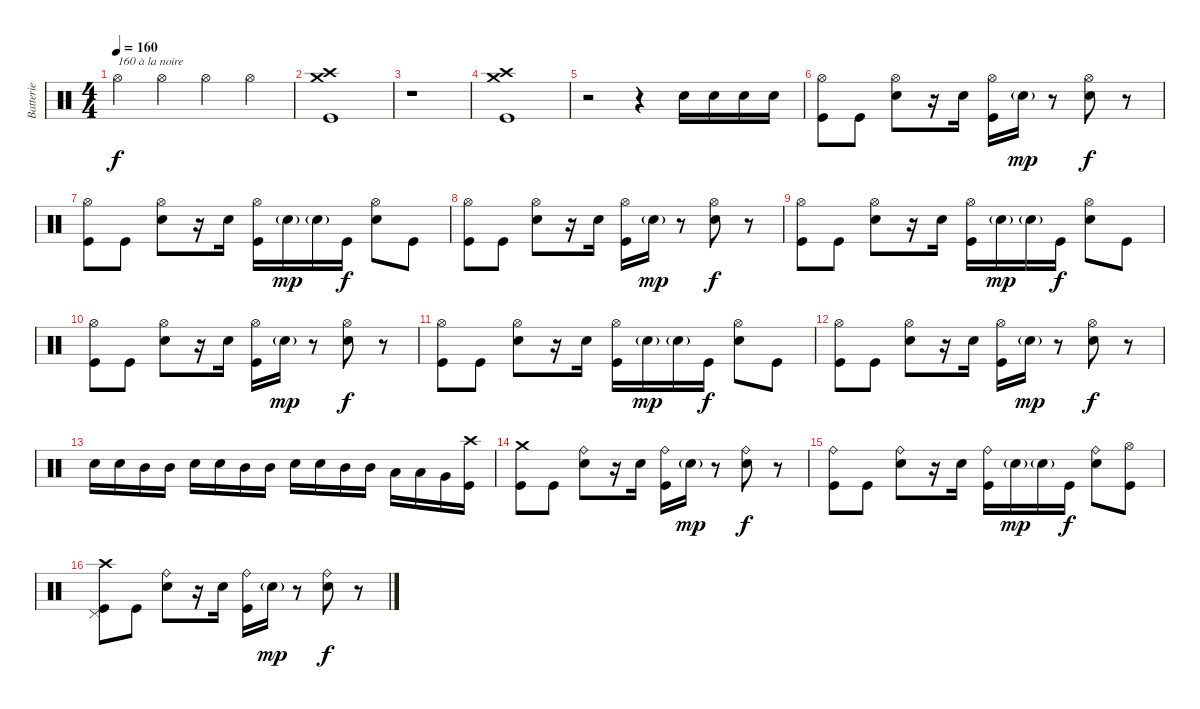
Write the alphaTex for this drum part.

\track ("Batterie" "Batterie") {instrument percussion}
\staff {score}
\articulation defaults
\ts (4 4)
\tempo 120
\tempo 160
\clef neutral
\ks c "Hi-Hat (open)".4{txt "160 à la noire" dy f} "Hi-Hat (open)".4 "Hi-Hat (open)".4 "Hi-Hat (open)".4
|
("Crash high (hit)" "Crash medium (hit)" "Kick (hit)").1 |
r.1 |
("Crash high (hit)" "Crash medium (hit)" "Kick (hit)").1 |
r.2 r.4 "Electric Snare (hit)".16 "Electric Snare (hit)".16 "Electric Snare (hit)".16 "Electric Snare (hit)".16 |
("Hi-Hat (open)" "Kick (hit)").8 "Kick (hit)".8 ("Hi-Hat (open)" "Electric Snare (hit)").8 r.16 "Electric Snare (hit)".16 ("Hi-Hat (open)" "Kick (hit)").16 "Electric Snare (hit)"{g}.16{dy mp} r.8 ("Hi-Hat (open)" "Electric Snare (hit)").8{dy f} r.8 |
("Hi-Hat (open)" "Kick (hit)").8 "Kick (hit)".8 ("Hi-Hat (open)" "Electric Snare (hit)").8 r.16 "Electric Snare (hit)".16 ("Hi-Hat (open)" "Kick (hit)").16 "Electric Snare (hit)"{g}.16{dy mp} "Electric Snare (hit)"{g}.16 "Kick (hit)".16{dy f} ("Hi-Hat (open)" "Electric Snare (hit)").8 "Kick (hit)".8 |
("Hi-Hat (open)" "Kick (hit)").8 "Kick (hit)".8 ("Hi-Hat (open)" "Electric Snare (hit)").8 r.16 "Electric Snare (hit)".16 ("Hi-Hat (open)" "Kick (hit)").16 "Electric Snare (hit)"{g}.16{dy mp} r.8 ("Hi-Hat (open)" "Electric Snare (hit)").8{dy f} r.8 |
("Hi-Hat (open)" "Kick (hit)").8 "Kick (hit)".8 ("Hi-Hat (open)" "Electric Snare (hit)").8 r.16 "Electric Snare (hit)".16 ("Hi-Hat (open)" "Kick (hit)").16 "Electric Snare (hit)"{g}.16{dy mp} "Electric Snare (hit)"{g}.16 "Kick (hit)".16{dy f} ("Hi-Hat (open)" "Electric Snare (hit)").8 "Kick (hit)".8 |
("Hi-Hat (open)" "Kick (hit)").8 "Kick (hit)".8 ("Hi-Hat (open)" "Electric Snare (hit)").8 r.16 "Electric Snare (hit)".16 ("Hi-Hat (open)" "Kick (hit)").16 "Electric Snare (hit)"{g}.16{dy mp} r.8 ("Hi-Hat (open)" "Electric Snare (hit)").8{dy f} r.8 |
("Hi-Hat (open)" "Kick (hit)").8 "Kick (hit)".8 ("Hi-Hat (open)" "Electric Snare (hit)").8 r.16 "Electric Snare (hit)".16 ("Hi-Hat (open)" "Kick (hit)").16 "Electric Snare (hit)"{g}.16{dy mp} "Electric Snare (hit)"{g}.16 "Kick (hit)".16{dy f} ("Hi-Hat (open)" "Electric Snare (hit)").8 "Kick (hit)".8 |
("Hi-Hat (open)" "Kick (hit)").8 "Kick (hit)".8 ("Hi-Hat (open)" "Electric Snare (hit)").8 r.16 "Electric Snare (hit)".16 ("Hi-Hat (open)" "Kick (hit)").16 "Electric Snare (hit)"{g}.16{dy mp} r.8 ("Hi-Hat (open)" "Electric Snare (hit)").8{dy f} r.8 |
"Electric Snare (hit)".16 "Electric Snare (hit)".16 "Mid Tom (hit)".16 "Mid Tom (hit)".16 "Electric Snare (hit)".16 "Electric Snare (hit)".16 "Mid Tom (hit)".16 "Mid Tom (hit)".16 "Electric Snare (hit)".16 "Electric Snare (hit)".16 "Mid Tom (hit)".16 "Mid Tom (hit)".16 "Low Tom (hit)".16 "Low Tom (hit)".16 "Very Low Tom (hit)".16 ("Crash high (hit)" "Kick (hit)").16 |
("Crash medium (hit)" "Kick (hit)").8 "Kick (hit)".8 ("Ride (bell)" "Electric Snare (hit)").8 r.16 "Electric Snare (hit)".16 ("Ride (bell)" "Kick (hit)").16 "Electric Snare (hit)"{g}.16{dy mp} r.8 ("Ride (bell)" "Electric Snare (hit)").8{dy f} r.8 |
("Ride (bell)" "Kick (hit)").8 "Kick (hit)".8 ("Ride (bell)" "Electric Snare (hit)").8 r.16 "Electric Snare (hit)".16 ("Ride (bell)" "Kick (hit)").16 "Electric Snare (hit)"{g}.16{dy mp} "Electric Snare (hit)"{g}.16 "Kick (hit)".16{dy f} ("Ride (bell)" "Electric Snare (hit)").8 ("Hi-Hat (open)" "Kick (hit)").8 |
("Crash high (hit)" "Pedal Hi-Hat (hit)" "Kick (hit)").8 "Kick (hit)".8 ("Ride (bell)" "Electric Snare (hit)").8 r.16 "Electric Snare (hit)".16 ("Ride (bell)" "Kick (hit)").16 "Electric Snare (hit)"{g}.16{dy mp} r.8 ("Ride (bell)" "Electric Snare (hit)").8{dy f} r.8
